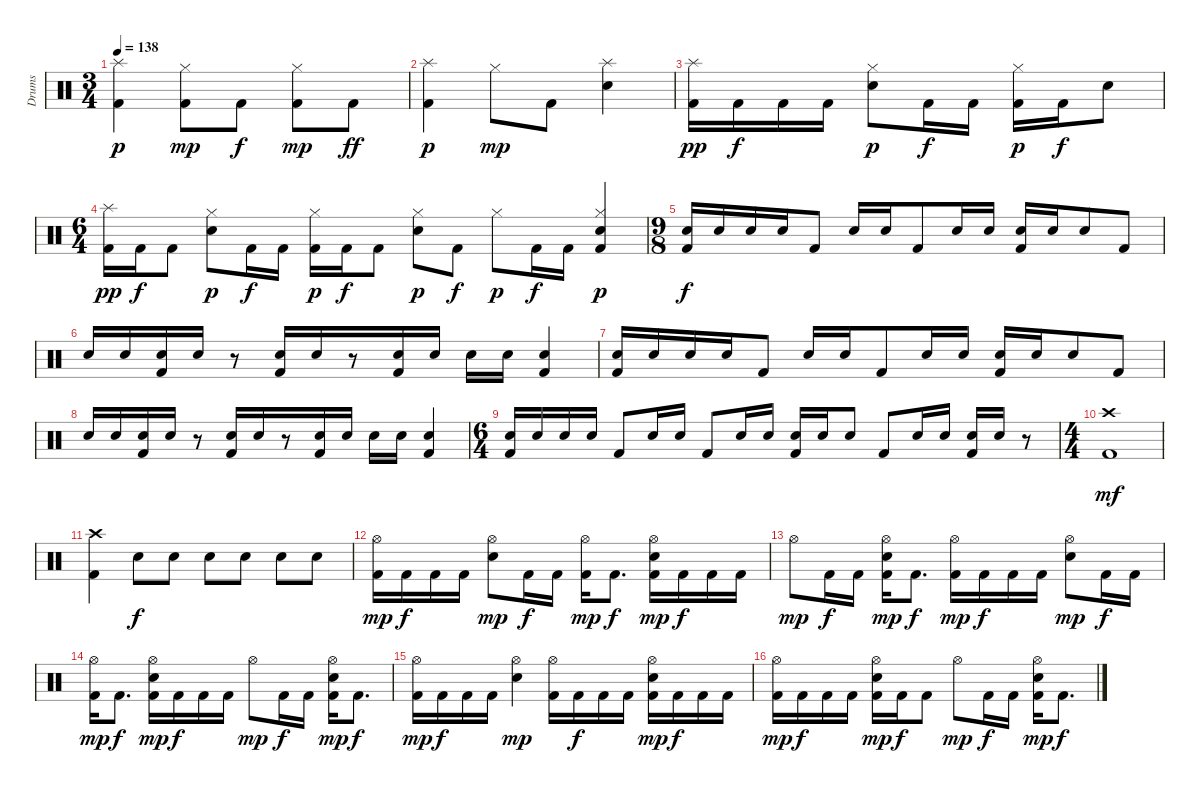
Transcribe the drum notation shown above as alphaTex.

\track ("Drums" "Drums") {instrument percussion}
\staff {score}
\articulation defaults
\ts (3 4)
\tempo 138
\clef neutral
\ks c
("Kick (hit) 2" "Splash (hit)").4{dy p} ("Kick (hit) 2" "Hi-Hat (closed)").8{dy mp} "Kick (hit) 2".8{dy f} ("Kick (hit) 2" "Hi-Hat (closed)").8{dy mp} "Kick (hit) 2".8{dy ff} |
("Kick (hit) 2" "Splash (hit)").4{dy p} "Hi-Hat (closed)".8{dy mp} "Kick (hit) 2".8 ("Electric Snare (hit)" "Splash (hit)").4 |
("Kick (hit) 2" "Splash (hit)").16{dy pp} "Kick (hit) 2".16{dy f} "Kick (hit) 2".16 "Kick (hit) 2".16 ("Electric Snare (hit)" "Hi-Hat (closed)").8{dy p} "Kick (hit) 2".16{dy f} "Kick (hit) 2".16 ("Kick (hit) 2" "Hi-Hat (closed)").16{dy p} "Kick (hit) 2".16{dy f} "Electric Snare (hit)".8 |
\ts (6 4)
("Kick (hit) 2" "Splash (hit)").16{dy pp} "Kick (hit) 2".16{dy f} "Kick (hit) 2".8 ("Electric Snare (hit)" "Hi-Hat (closed)").8{dy p} "Kick (hit) 2".16{dy f} "Kick (hit) 2".16 ("Kick (hit) 2" "Hi-Hat (closed)").16{dy p} "Kick (hit) 2".16{dy f} "Kick (hit) 2".8 ("Electric Snare (hit)" "Hi-Hat (closed)").8{dy p} "Kick (hit) 2".8{dy f} "Hi-Hat (closed)".8{dy p} "Kick (hit) 2".16{dy f} "Kick (hit) 2".16 ("Kick (hit) 2" "Electric Snare (hit)" "Hi-Hat (closed)").4{dy p} |
\ts (9 8)
("Kick (hit) 2" "Electric Snare (hit)").16{dy f} "Electric Snare (hit)".16 "Electric Snare (hit)".16 "Electric Snare (hit)".16 "Kick (hit) 2".8 "Electric Snare (hit)".16 "Electric Snare (hit)".16 "Kick (hit) 2".8 "Electric Snare (hit)".16 "Electric Snare (hit)".16 ("Kick (hit) 2" "Electric Snare (hit)").16 "Electric Snare (hit)".16 "Electric Snare (hit)".8 "Kick (hit) 2".8 |
"Electric Snare (hit)".16 "Electric Snare (hit)".16 ("Kick (hit) 2" "Electric Snare (hit)").16 "Electric Snare (hit)".16 r.8 ("Kick (hit) 2" "Electric Snare (hit)").16 "Electric Snare (hit)".16 r.8 ("Kick (hit) 2" "Electric Snare (hit)").16 "Electric Snare (hit)".16 "Electric Snare (hit)".16 "Electric Snare (hit)".16 ("Kick (hit) 2" "Electric Snare (hit)").4 |
("Kick (hit) 2" "Electric Snare (hit)").16 "Electric Snare (hit)".16 "Electric Snare (hit)".16 "Electric Snare (hit)".16 "Kick (hit) 2".8 "Electric Snare (hit)".16 "Electric Snare (hit)".16 "Kick (hit) 2".8 "Electric Snare (hit)".16 "Electric Snare (hit)".16 ("Kick (hit) 2" "Electric Snare (hit)").16 "Electric Snare (hit)".16 "Electric Snare (hit)".8 "Kick (hit) 2".8 |
"Electric Snare (hit)".16 "Electric Snare (hit)".16 ("Kick (hit) 2" "Electric Snare (hit)").16 "Electric Snare (hit)".16 r.8 ("Kick (hit) 2" "Electric Snare (hit)").16 "Electric Snare (hit)".16 r.8 ("Kick (hit) 2" "Electric Snare (hit)").16 "Electric Snare (hit)".16 "Electric Snare (hit)".16 "Electric Snare (hit)".16 ("Kick (hit) 2" "Electric Snare (hit)").4 |
\ts (6 4)
("Kick (hit) 2" "Electric Snare (hit)").16 "Electric Snare (hit)".16 "Electric Snare (hit)".16 "Electric Snare (hit)".16 "Kick (hit) 2".8 "Electric Snare (hit)".16 "Electric Snare (hit)".16 "Kick (hit) 2".8 "Electric Snare (hit)".16 "Electric Snare (hit)".16 ("Kick (hit) 2" "Electric Snare (hit)").16 "Electric Snare (hit)".16 "Electric Snare (hit)".8 "Kick (hit) 2".8 "Electric Snare (hit)".16 "Electric Snare (hit)".16 ("Kick (hit) 2" "Electric Snare (hit)").16 "Electric Snare (hit)".16 r.8 |
\ts (4 4)
("Kick (hit) 2" "Crash high (hit)").1{dy mf} |
("Kick (hit) 2" "Crash high (hit)").4 "Electric Snare (hit)".8{dy f} "Electric Snare (hit)".8 "Electric Snare (hit)".8 "Electric Snare (hit)".8 "Electric Snare (hit)".8 "Electric Snare (hit)".8 |
("Kick (hit) 2" "Hi-Hat (open)").16{dy mp} "Kick (hit) 2".16{dy f} "Kick (hit) 2".16 "Kick (hit) 2".16 ("Electric Snare (hit)" "Hi-Hat (open)").8{dy mp} "Kick (hit) 2".16{dy f} "Kick (hit) 2".16 ("Kick (hit) 2" "Hi-Hat (open)").16{dy mp} "Kick (hit) 2".8{d dy f} ("Kick (hit) 2" "Electric Snare (hit)" "Hi-Hat (open)").16{dy mp} "Kick (hit) 2".16{dy f} "Kick (hit) 2".16 "Kick (hit) 2".16 |
"Hi-Hat (open)".8{dy mp} "Kick (hit) 2".16{dy f} "Kick (hit) 2".16 ("Kick (hit) 2" "Electric Snare (hit)" "Hi-Hat (open)").16{dy mp} "Kick (hit) 2".8{d dy f} ("Kick (hit) 2" "Hi-Hat (open)").16{dy mp} "Kick (hit) 2".16{dy f} "Kick (hit) 2".16 "Kick (hit) 2".16 ("Electric Snare (hit)" "Hi-Hat (open)").8{dy mp} "Kick (hit) 2".16{dy f} "Kick (hit) 2".16 |
("Kick (hit) 2" "Hi-Hat (open)").16{dy mp} "Kick (hit) 2".8{d dy f} ("Kick (hit) 2" "Electric Snare (hit)" "Hi-Hat (open)").16{dy mp} "Kick (hit) 2".16{dy f} "Kick (hit) 2".16 "Kick (hit) 2".16 "Hi-Hat (open)".8{dy mp} "Kick (hit) 2".16{dy f} "Kick (hit) 2".16 ("Kick (hit) 2" "Electric Snare (hit)" "Hi-Hat (open)").16{dy mp} "Kick (hit) 2".8{d dy f} |
("Kick (hit) 2" "Hi-Hat (open)").16{dy mp} "Kick (hit) 2".16{dy f} "Kick (hit) 2".16 "Kick (hit) 2".16 ("Electric Snare (hit)" "Hi-Hat (open)").4{dy mp} ("Kick (hit) 2" "Hi-Hat (open)").16 "Kick (hit) 2".16{dy f} "Kick (hit) 2".16 "Kick (hit) 2".16 ("Kick (hit) 2" "Electric Snare (hit)" "Hi-Hat (open)").16{dy mp} "Kick (hit) 2".16{dy f} "Kick (hit) 2".16 "Kick (hit) 2".16 |
("Kick (hit) 2" "Hi-Hat (open)").16{dy mp} "Kick (hit) 2".16{dy f} "Kick (hit) 2".16 "Kick (hit) 2".16 ("Kick (hit) 2" "Electric Snare (hit)" "Hi-Hat (open)").16{dy mp} "Kick (hit) 2".16{dy f} "Kick (hit) 2".8 "Hi-Hat (open)".8{dy mp} "Kick (hit) 2".16{dy f} "Kick (hit) 2".16 ("Kick (hit) 2" "Electric Snare (hit)" "Hi-Hat (open)").16{dy mp} "Kick (hit) 2".8{d dy f}
